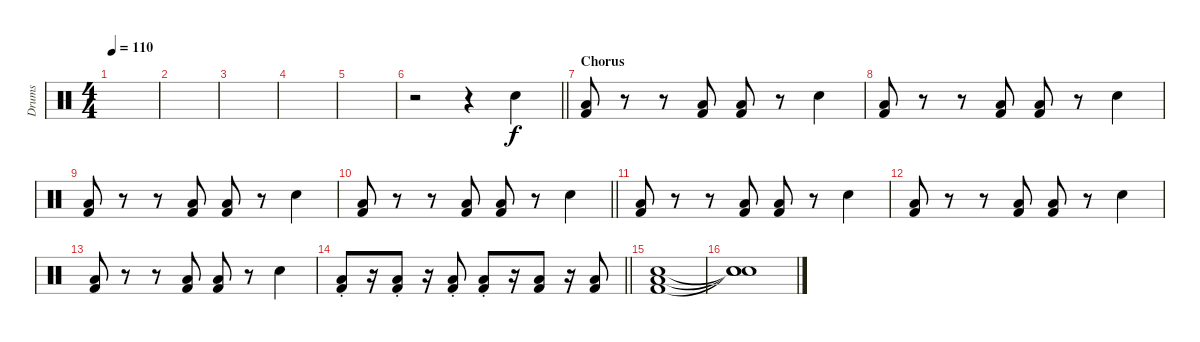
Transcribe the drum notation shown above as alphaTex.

\track ("Drums" "Drums") {instrument percussion}
\staff {score}
\articulation defaults
\ts (4 4)
\tempo 110
\clef neutral
\ks c
|
|
|
|
|
\barLineRight lightlight
r.2 r.4 "Snare (hit) 2".4 |
\section ("" "Chorus")
("Low Floor Tom (hit)" "Kick (hit) 2").8 r.8 r.8 ("Low Floor Tom (hit)" "Kick (hit) 2").8 ("Low Floor Tom (hit)" "Kick (hit) 2").8 r.8 "Snare (hit) 2".4 |
("Low Floor Tom (hit)" "Kick (hit) 2").8 r.8 r.8 ("Low Floor Tom (hit)" "Kick (hit) 2").8 ("Low Floor Tom (hit)" "Kick (hit) 2").8 r.8 "Snare (hit) 2".4 |
("Low Floor Tom (hit)" "Kick (hit) 2").8 r.8 r.8 ("Low Floor Tom (hit)" "Kick (hit) 2").8 ("Low Floor Tom (hit)" "Kick (hit) 2").8 r.8 "Snare (hit) 2".4 |
\barLineRight lightlight
("Low Floor Tom (hit)" "Kick (hit) 2").8 r.8 r.8 ("Low Floor Tom (hit)" "Kick (hit) 2").8 ("Low Floor Tom (hit)" "Kick (hit) 2").8 r.8 "Snare (hit) 2".4 |
("Low Floor Tom (hit)" "Kick (hit) 2").8 r.8 r.8 ("Low Floor Tom (hit)" "Kick (hit) 2").8 ("Low Floor Tom (hit)" "Kick (hit) 2").8 r.8 "Snare (hit) 2".4 |
("Low Floor Tom (hit)" "Kick (hit) 2").8 r.8 r.8 ("Low Floor Tom (hit)" "Kick (hit) 2").8 ("Low Floor Tom (hit)" "Kick (hit) 2").8 r.8 "Snare (hit) 2".4 |
("Low Floor Tom (hit)" "Kick (hit) 2").8 r.8 r.8 ("Low Floor Tom (hit)" "Kick (hit) 2").8 ("Low Floor Tom (hit)" "Kick (hit) 2").8 r.8 "Snare (hit) 2".4 |
\barLineRight lightlight
("Low Floor Tom (hit)"{st} "Kick (hit) 2"{st}).8 r.16 ("Low Floor Tom (hit)"{st} "Kick (hit) 2"{st}).8 r.16 ("Low Floor Tom (hit)"{st} "Kick (hit) 2"{st}).8 ("Low Floor Tom (hit)"{st} "Kick (hit) 2"{st}).8 r.16 ("Low Floor Tom (hit)" "Kick (hit) 2").8 r.16 ("Low Floor Tom (hit)" "Kick (hit) 2").8 |
("Snare (hit) 2" "Low Floor Tom (hit)" "Kick (hit) 2").1 |
("Snare (hit)"{t} "Snare (hit)"{t} "Snare (hit)"{t}).1
